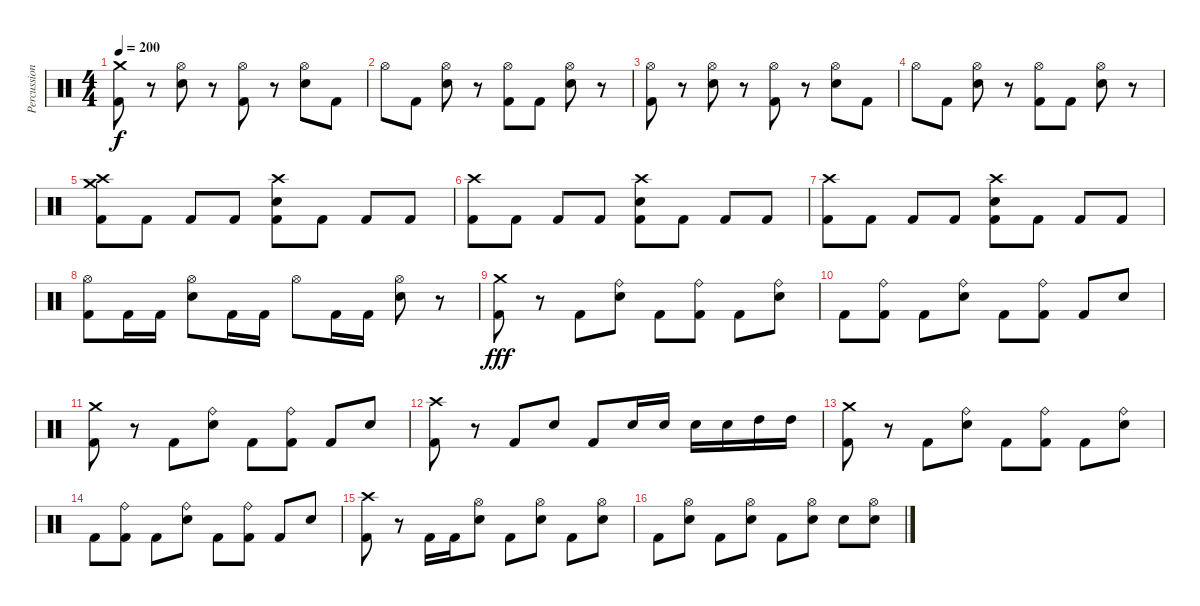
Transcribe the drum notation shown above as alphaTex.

\track ("Percussion" "Percussion") {instrument percussion}
\staff {score}
\articulation defaults
\ts (4 4)
\tempo 200
\clef neutral
\ks c
("Crash medium (hit)" "Kick (hit) 2").8{dy f} r.8 ("Hi-Hat (open)" "Snare (hit) 2").8 r.8 ("Hi-Hat (open)" "Kick (hit) 2").8 r.8 ("Hi-Hat (open)" "Snare (hit) 2").8 "Kick (hit) 2".8 |
"Hi-Hat (open)".8 "Kick (hit) 2".8 ("Hi-Hat (open)" "Snare (hit) 2").8 r.8 ("Hi-Hat (open)" "Kick (hit) 2").8 "Kick (hit) 2".8 ("Hi-Hat (open)" "Snare (hit) 2").8 r.8 |
("Hi-Hat (open)" "Kick (hit) 2").8 r.8 ("Hi-Hat (open)" "Snare (hit) 2").8 r.8 ("Hi-Hat (open)" "Kick (hit) 2").8 r.8 ("Hi-Hat (open)" "Snare (hit) 2").8 "Kick (hit) 2".8 |
"Hi-Hat (open)".8 "Kick (hit) 2".8 ("Hi-Hat (open)" "Snare (hit) 2").8 r.8 ("Hi-Hat (open)" "Kick (hit) 2").8 "Kick (hit) 2".8 ("Hi-Hat (open)" "Snare (hit) 2").8 r.8 |
("Crash high (hit)" "Crash medium (hit)" "Kick (hit) 2").8 "Kick (hit) 2".8 "Kick (hit) 2".8 "Kick (hit) 2".8 ("Crash high (hit)" "Snare (hit) 2" "Kick (hit) 2").8 "Kick (hit) 2".8 "Kick (hit) 2".8 "Kick (hit) 2".8 |
("Crash high (hit)" "Kick (hit) 2").8 "Kick (hit) 2".8 "Kick (hit) 2".8 "Kick (hit) 2".8 ("Crash high (hit)" "Snare (hit) 2" "Kick (hit) 2").8 "Kick (hit) 2".8 "Kick (hit) 2".8 "Kick (hit) 2".8 |
("Crash high (hit)" "Kick (hit) 2").8 "Kick (hit) 2".8 "Kick (hit) 2".8 "Kick (hit) 2".8 ("Crash high (hit)" "Snare (hit) 2" "Kick (hit) 2").8 "Kick (hit) 2".8 "Kick (hit) 2".8 "Kick (hit) 2".8 |
("Hi-Hat (open)" "Kick (hit) 2").8 "Kick (hit) 2".16 "Kick (hit) 2".16 ("Hi-Hat (open)" "Snare (hit) 2").8 "Kick (hit) 2".16 "Kick (hit) 2".16 "Hi-Hat (open)".8 "Kick (hit) 2".16 "Kick (hit) 2".16 ("Hi-Hat (open)" "Snare (hit) 2").8 r.8 |
("Crash medium (hit)" "Kick (hit) 2").8{dy fff} r.8 "Kick (hit) 2".8 ("Ride (bell)" "Snare (hit) 2").8 "Kick (hit) 2".8 ("Ride (bell)" "Kick (hit) 2").8 "Kick (hit) 2".8 ("Ride (bell)" "Snare (hit) 2").8 |
"Kick (hit) 2".8 ("Ride (bell)" "Kick (hit) 2").8 "Kick (hit) 2".8 ("Ride (bell)" "Snare (hit) 2").8 "Kick (hit) 2".8 ("Ride (bell)" "Kick (hit) 2").8 "Kick (hit) 2".8 "Snare (hit) 2".8 |
("Crash medium (hit)" "Kick (hit) 2").8 r.8 "Kick (hit) 2".8 ("Ride (bell)" "Snare (hit) 2").8 "Kick (hit) 2".8 ("Ride (bell)" "Kick (hit) 2").8 "Kick (hit) 2".8 "Snare (hit) 2".8 |
("Crash high (hit)" "Kick (hit) 2").8 r.8 "Kick (hit) 2".8 "Snare (hit) 2".8 "Kick (hit) 2".8 "Snare (hit) 2".16 "Snare (hit) 2".16 "Snare (hit) 2".16 "Snare (hit) 2".16 "High Tom (hit)".16 "High Tom (hit)".16 |
("Crash medium (hit)" "Kick (hit) 2").8 r.8 "Kick (hit) 2".8 ("Ride (bell)" "Snare (hit) 2").8 "Kick (hit) 2".8 ("Ride (bell)" "Kick (hit) 2").8 "Kick (hit) 2".8 ("Ride (bell)" "Snare (hit) 2").8 |
"Kick (hit) 2".8 ("Ride (bell)" "Kick (hit) 2").8 "Kick (hit) 2".8 ("Ride (bell)" "Snare (hit) 2").8 "Kick (hit) 2".8 ("Ride (bell)" "Kick (hit) 2").8 "Kick (hit) 2".8 "Snare (hit) 2".8 |
("Crash high (hit)" "Kick (hit) 2").8 r.8 "Kick (hit) 2".16 "Kick (hit) 2".16 ("Hi-Hat (open)" "Snare (hit) 2").8 "Kick (hit) 2".8 ("Hi-Hat (open)" "Snare (hit) 2").8 "Kick (hit) 2".8 ("Hi-Hat (open)" "Snare (hit) 2").8 |
"Kick (hit) 2".8 ("Hi-Hat (open)" "Snare (hit) 2").8 "Kick (hit) 2".8 ("Hi-Hat (open)" "Snare (hit) 2").8 "Kick (hit) 2".8 ("Hi-Hat (open)" "Snare (hit) 2").8 "Snare (hit) 2".8 ("Hi-Hat (open)" "Snare (hit) 2").8
